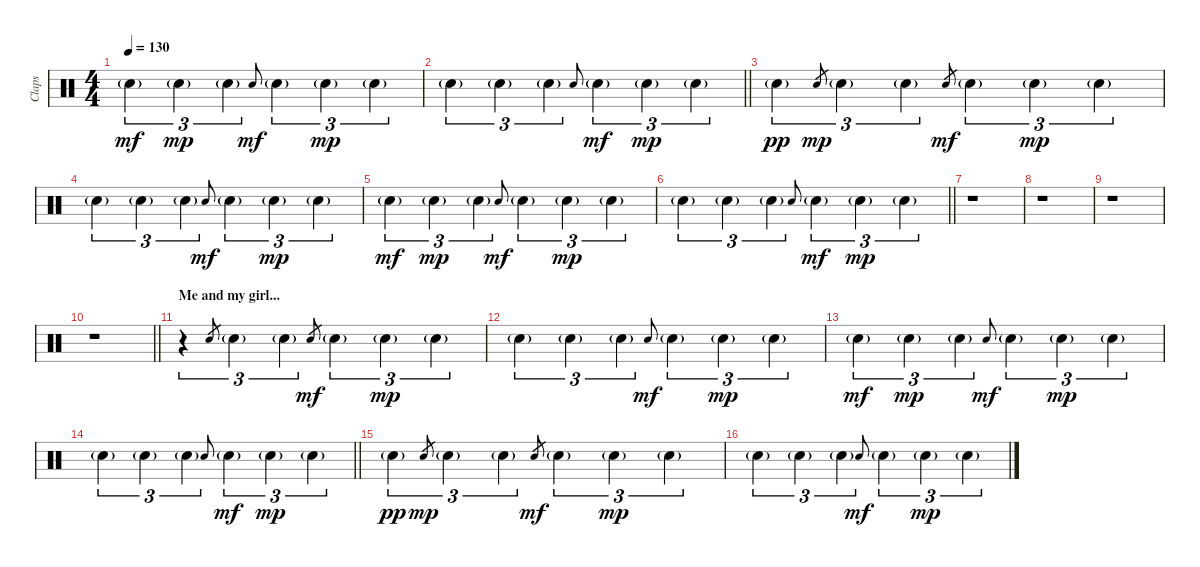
\track ("Claps" "Claps") {instrument percussion}
\staff {score}
\articulation defaults
\ts (4 4)
\tempo 130
\clef neutral
\ks c "Hand Clap (hit)"{g}.4{tu (3 2) dy mf} "Hand Clap (hit)"{g}.4{tu (3 2) dy mp} "Hand Clap (hit)"{g}.4{tu (3 2)} "Hand Clap (hit)".8{gr onbeat dy mf} "Hand Clap (hit)"{g}.4{tu (3 2)} "Hand Clap (hit)"{g}.4{tu (3 2) dy mp} "Hand Clap (hit)"{g}.4{tu (3 2)}
|
\barLineRight lightlight "Hand Clap (hit)"{g}.4{tu (3 2)} "Hand Clap (hit)"{g}.4{tu (3 2)} "Hand Clap (hit)"{g}.4{tu (3 2)} "Hand Clap (hit)".8{gr onbeat} "Hand Clap (hit)"{g}.4{tu (3 2) dy mf} "Hand Clap (hit)"{g}.4{tu (3 2) dy mp} "Hand Clap (hit)"{g}.4{tu (3 2)}
|
"Hand Clap (hit)"{g}.4{tu (3 2) dy pp} "Hand Clap (hit)".8{gr dy mp} "Hand Clap (hit)"{g}.4{tu (3 2)} "Hand Clap (hit)"{g}.4{tu (3 2)} "Hand Clap (hit)".8{gr dy mf} "Hand Clap (hit)"{g}.4{tu (3 2)} "Hand Clap (hit)"{g}.4{tu (3 2) dy mp} "Hand Clap (hit)"{g}.4{tu (3 2)} |
"Hand Clap (hit)"{g}.4{tu (3 2)} "Hand Clap (hit)"{g}.4{tu (3 2)} "Hand Clap (hit)"{g}.4{tu (3 2)} "Hand Clap (hit)".8{gr onbeat dy mf} "Hand Clap (hit)"{g}.4{tu (3 2)} "Hand Clap (hit)"{g}.4{tu (3 2) dy mp} "Hand Clap (hit)"{g}.4{tu (3 2)} |
"Hand Clap (hit)"{g}.4{tu (3 2) dy mf} "Hand Clap (hit)"{g}.4{tu (3 2) dy mp} "Hand Clap (hit)"{g}.4{tu (3 2)} "Hand Clap (hit)".8{gr onbeat dy mf} "Hand Clap (hit)"{g}.4{tu (3 2)} "Hand Clap (hit)"{g}.4{tu (3 2) dy mp} "Hand Clap (hit)"{g}.4{tu (3 2)} |
\barLineRight lightlight "Hand Clap (hit)"{g}.4{tu (3 2)} "Hand Clap (hit)"{g}.4{tu (3 2)} "Hand Clap (hit)"{g}.4{tu (3 2)} "Hand Clap (hit)".8{gr onbeat} "Hand Clap (hit)"{g}.4{tu (3 2) dy mf} "Hand Clap (hit)"{g}.4{tu (3 2) dy mp} "Hand Clap (hit)"{g}.4{tu (3 2)}
|
r.1 |
r.1 |
r.1 |
\barLineRight lightlight
r.1 |
\section ("" "Me and my girl...")
r.4{tu (3 2)} "Hand Clap (hit)".8{gr} "Hand Clap (hit)"{g}.4{tu (3 2)} "Hand Clap (hit)"{g}.4{tu (3 2)} "Hand Clap (hit)".8{gr dy mf} "Hand Clap (hit)"{g}.4{tu (3 2)} "Hand Clap (hit)"{g}.4{tu (3 2) dy mp} "Hand Clap (hit)"{g}.4{tu (3 2)} |
"Hand Clap (hit)"{g}.4{tu (3 2)} "Hand Clap (hit)"{g}.4{tu (3 2)} "Hand Clap (hit)"{g}.4{tu (3 2)} "Hand Clap (hit)".8{gr onbeat dy mf} "Hand Clap (hit)"{g}.4{tu (3 2)} "Hand Clap (hit)"{g}.4{tu (3 2) dy mp} "Hand Clap (hit)"{g}.4{tu (3 2)} |
"Hand Clap (hit)"{g}.4{tu (3 2) dy mf} "Hand Clap (hit)"{g}.4{tu (3 2) dy mp} "Hand Clap (hit)"{g}.4{tu (3 2)} "Hand Clap (hit)".8{gr onbeat dy mf} "Hand Clap (hit)"{g}.4{tu (3 2)} "Hand Clap (hit)"{g}.4{tu (3 2) dy mp} "Hand Clap (hit)"{g}.4{tu (3 2)} |
\barLineRight lightlight "Hand Clap (hit)"{g}.4{tu (3 2)} "Hand Clap (hit)"{g}.4{tu (3 2)} "Hand Clap (hit)"{g}.4{tu (3 2)} "Hand Clap (hit)".8{gr onbeat} "Hand Clap (hit)"{g}.4{tu (3 2) dy mf} "Hand Clap (hit)"{g}.4{tu (3 2) dy mp} "Hand Clap (hit)"{g}.4{tu (3 2)}
|
"Hand Clap (hit)"{g}.4{tu (3 2) dy pp} "Hand Clap (hit)".8{gr dy mp} "Hand Clap (hit)"{g}.4{tu (3 2)} "Hand Clap (hit)"{g}.4{tu (3 2)} "Hand Clap (hit)".8{gr dy mf} "Hand Clap (hit)"{g}.4{tu (3 2)} "Hand Clap (hit)"{g}.4{tu (3 2) dy mp} "Hand Clap (hit)"{g}.4{tu (3 2)} |
"Hand Clap (hit)"{g}.4{tu (3 2)} "Hand Clap (hit)"{g}.4{tu (3 2)} "Hand Clap (hit)"{g}.4{tu (3 2)} "Hand Clap (hit)".8{gr onbeat dy mf} "Hand Clap (hit)"{g}.4{tu (3 2)} "Hand Clap (hit)"{g}.4{tu (3 2) dy mp} "Hand Clap (hit)"{g}.4{tu (3 2)}
